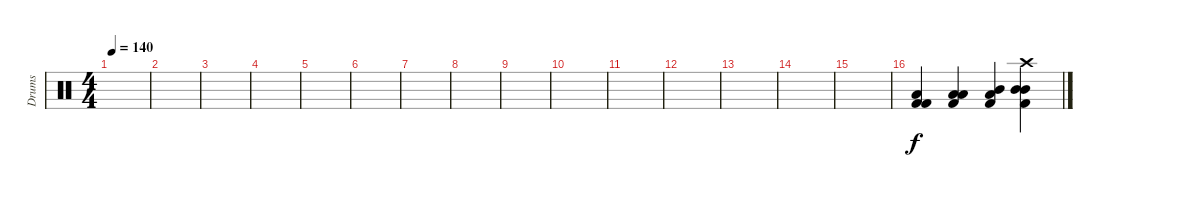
\track ("Drums" "Drums") {instrument percussion}
\staff {score}
\articulation defaults
\ts (4 4)
\tempo 140
\clef neutral
\ks c
|
|
|
|
|
|
|
|
|
|
|
|
|
|
|
("Low Tom (hit)" "Kick (hit) 2" "Kick (hit) 2").4{volume 12} ("Low Tom (hit)" "Low Tom (hit)" "Kick (hit) 2").4 ("Mid Tom (hit)" "Low Tom (hit)" "Kick (hit) 2").4 ("Crash high (hit)" "Mid Tom (hit)" "Mid Tom (hit)" "Kick (hit) 2").4
